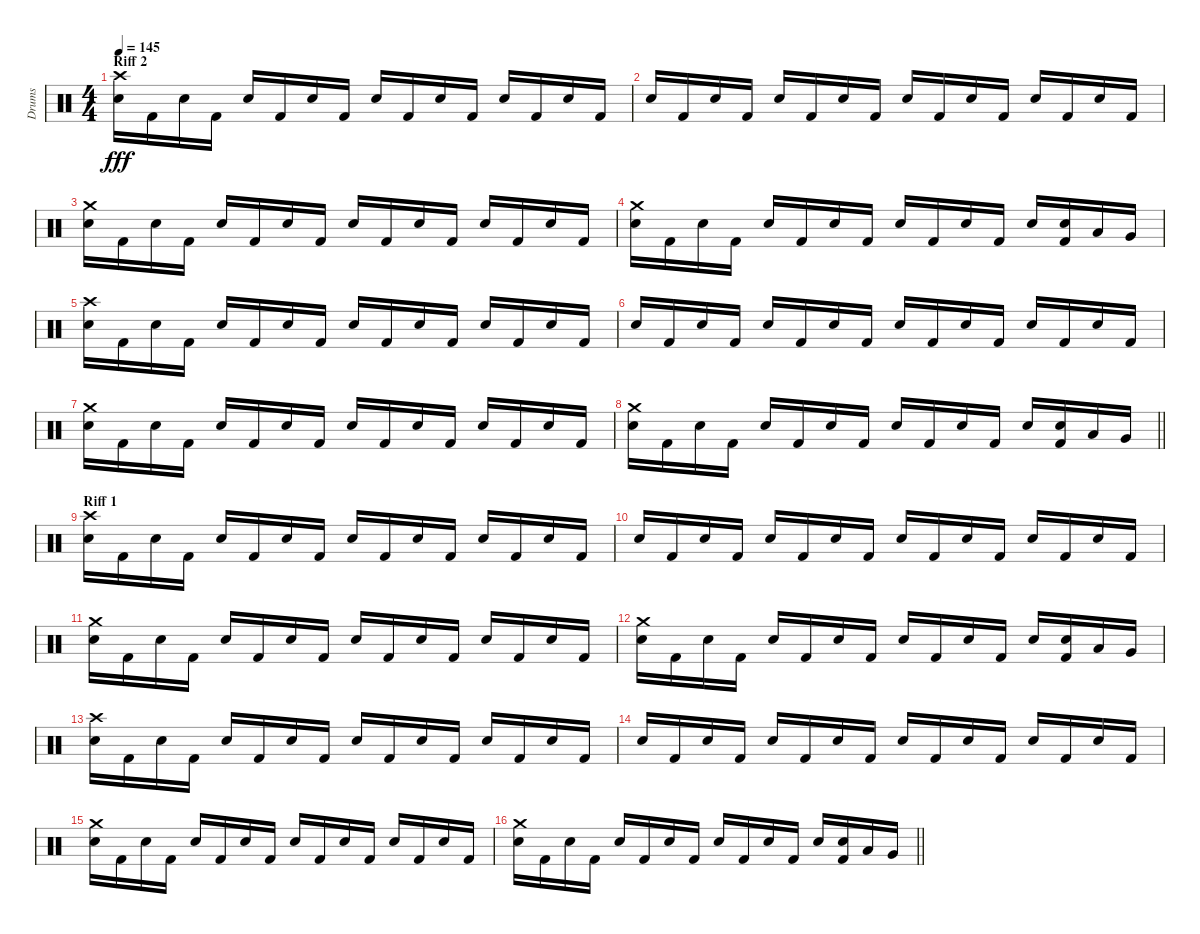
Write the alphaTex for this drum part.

\track ("Drums" "Drums") {instrument percussion}
\staff {score}
\articulation defaults
\ts (4 4)
\section ("" "Riff 2")
\tempo 145
\clef neutral
\ks c
("Crash high (hit)" "Snare (hit) 2").16{dy fff} "Kick (hit) 2".16 "Snare (hit) 2".16 "Kick (hit) 2".16 "Snare (hit) 2".16 "Kick (hit) 2".16 "Snare (hit) 2".16 "Kick (hit) 2".16 "Snare (hit) 2".16 "Kick (hit) 2".16 "Snare (hit) 2".16 "Kick (hit) 2".16 "Snare (hit) 2".16 "Kick (hit) 2".16 "Snare (hit) 2".16 "Kick (hit) 2".16 |
"Snare (hit) 2".16 "Kick (hit) 2".16 "Snare (hit) 2".16 "Kick (hit) 2".16 "Snare (hit) 2".16 "Kick (hit) 2".16 "Snare (hit) 2".16 "Kick (hit) 2".16 "Snare (hit) 2".16 "Kick (hit) 2".16 "Snare (hit) 2".16 "Kick (hit) 2".16 "Snare (hit) 2".16 "Kick (hit) 2".16 "Snare (hit) 2".16 "Kick (hit) 2".16 |
("Crash medium (hit)" "Snare (hit) 2").16 "Kick (hit) 2".16 "Snare (hit) 2".16 "Kick (hit) 2".16 "Snare (hit) 2".16 "Kick (hit) 2".16 "Snare (hit) 2".16 "Kick (hit) 2".16 "Snare (hit) 2".16 "Kick (hit) 2".16 "Snare (hit) 2".16 "Kick (hit) 2".16 "Snare (hit) 2".16 "Kick (hit) 2".16 "Snare (hit) 2".16 "Kick (hit) 2".16 |
("Crash medium (hit)" "Snare (hit) 2").16 "Kick (hit) 2".16 "Snare (hit) 2".16 "Kick (hit) 2".16 "Snare (hit) 2".16 "Kick (hit) 2".16 "Snare (hit) 2".16 "Kick (hit) 2".16 "Snare (hit) 2".16 "Kick (hit) 2".16 "Snare (hit) 2".16 "Kick (hit) 2".16 "Snare (hit) 2".16 ("Kick (hit) 2" "Snare (hit) 2").16 "Low Tom (hit)".16 "Very Low Tom (hit)".16 |
("Crash high (hit)" "Snare (hit) 2").16 "Kick (hit) 2".16 "Snare (hit) 2".16 "Kick (hit) 2".16 "Snare (hit) 2".16 "Kick (hit) 2".16 "Snare (hit) 2".16 "Kick (hit) 2".16 "Snare (hit) 2".16 "Kick (hit) 2".16 "Snare (hit) 2".16 "Kick (hit) 2".16 "Snare (hit) 2".16 "Kick (hit) 2".16 "Snare (hit) 2".16 "Kick (hit) 2".16 |
"Snare (hit) 2".16 "Kick (hit) 2".16 "Snare (hit) 2".16 "Kick (hit) 2".16 "Snare (hit) 2".16 "Kick (hit) 2".16 "Snare (hit) 2".16 "Kick (hit) 2".16 "Snare (hit) 2".16 "Kick (hit) 2".16 "Snare (hit) 2".16 "Kick (hit) 2".16 "Snare (hit) 2".16 "Kick (hit) 2".16 "Snare (hit) 2".16 "Kick (hit) 2".16 |
("Crash medium (hit)" "Snare (hit) 2").16 "Kick (hit) 2".16 "Snare (hit) 2".16 "Kick (hit) 2".16 "Snare (hit) 2".16 "Kick (hit) 2".16 "Snare (hit) 2".16 "Kick (hit) 2".16 "Snare (hit) 2".16 "Kick (hit) 2".16 "Snare (hit) 2".16 "Kick (hit) 2".16 "Snare (hit) 2".16 "Kick (hit) 2".16 "Snare (hit) 2".16 "Kick (hit) 2".16 |
\barLineRight lightlight
("Crash medium (hit)" "Snare (hit) 2").16 "Kick (hit) 2".16 "Snare (hit) 2".16 "Kick (hit) 2".16 "Snare (hit) 2".16 "Kick (hit) 2".16 "Snare (hit) 2".16 "Kick (hit) 2".16 "Snare (hit) 2".16 "Kick (hit) 2".16 "Snare (hit) 2".16 "Kick (hit) 2".16 "Snare (hit) 2".16 ("Kick (hit) 2" "Snare (hit) 2").16 "Low Tom (hit)".16 "Very Low Tom (hit)".16 |
\section ("" "Riff 1")
("Crash high (hit)" "Snare (hit) 2").16 "Kick (hit) 2".16 "Snare (hit) 2".16 "Kick (hit) 2".16 "Snare (hit) 2".16 "Kick (hit) 2".16 "Snare (hit) 2".16 "Kick (hit) 2".16 "Snare (hit) 2".16 "Kick (hit) 2".16 "Snare (hit) 2".16 "Kick (hit) 2".16 "Snare (hit) 2".16 "Kick (hit) 2".16 "Snare (hit) 2".16 "Kick (hit) 2".16 |
"Snare (hit) 2".16 "Kick (hit) 2".16 "Snare (hit) 2".16 "Kick (hit) 2".16 "Snare (hit) 2".16 "Kick (hit) 2".16 "Snare (hit) 2".16 "Kick (hit) 2".16 "Snare (hit) 2".16 "Kick (hit) 2".16 "Snare (hit) 2".16 "Kick (hit) 2".16 "Snare (hit) 2".16 "Kick (hit) 2".16 "Snare (hit) 2".16 "Kick (hit) 2".16 |
("Crash medium (hit)" "Snare (hit) 2").16 "Kick (hit) 2".16 "Snare (hit) 2".16 "Kick (hit) 2".16 "Snare (hit) 2".16 "Kick (hit) 2".16 "Snare (hit) 2".16 "Kick (hit) 2".16 "Snare (hit) 2".16 "Kick (hit) 2".16 "Snare (hit) 2".16 "Kick (hit) 2".16 "Snare (hit) 2".16 "Kick (hit) 2".16 "Snare (hit) 2".16 "Kick (hit) 2".16 |
("Crash medium (hit)" "Snare (hit) 2").16 "Kick (hit) 2".16 "Snare (hit) 2".16 "Kick (hit) 2".16 "Snare (hit) 2".16 "Kick (hit) 2".16 "Snare (hit) 2".16 "Kick (hit) 2".16 "Snare (hit) 2".16 "Kick (hit) 2".16 "Snare (hit) 2".16 "Kick (hit) 2".16 "Snare (hit) 2".16 ("Kick (hit) 2" "Snare (hit) 2").16 "Low Tom (hit)".16 "Very Low Tom (hit)".16 |
("Crash high (hit)" "Snare (hit) 2").16 "Kick (hit) 2".16 "Snare (hit) 2".16 "Kick (hit) 2".16 "Snare (hit) 2".16 "Kick (hit) 2".16 "Snare (hit) 2".16 "Kick (hit) 2".16 "Snare (hit) 2".16 "Kick (hit) 2".16 "Snare (hit) 2".16 "Kick (hit) 2".16 "Snare (hit) 2".16 "Kick (hit) 2".16 "Snare (hit) 2".16 "Kick (hit) 2".16 |
"Snare (hit) 2".16 "Kick (hit) 2".16 "Snare (hit) 2".16 "Kick (hit) 2".16 "Snare (hit) 2".16 "Kick (hit) 2".16 "Snare (hit) 2".16 "Kick (hit) 2".16 "Snare (hit) 2".16 "Kick (hit) 2".16 "Snare (hit) 2".16 "Kick (hit) 2".16 "Snare (hit) 2".16 "Kick (hit) 2".16 "Snare (hit) 2".16 "Kick (hit) 2".16 |
("Crash medium (hit)" "Snare (hit) 2").16 "Kick (hit) 2".16 "Snare (hit) 2".16 "Kick (hit) 2".16 "Snare (hit) 2".16 "Kick (hit) 2".16 "Snare (hit) 2".16 "Kick (hit) 2".16 "Snare (hit) 2".16 "Kick (hit) 2".16 "Snare (hit) 2".16 "Kick (hit) 2".16 "Snare (hit) 2".16 "Kick (hit) 2".16 "Snare (hit) 2".16 "Kick (hit) 2".16 |
\barLineRight lightlight
("Crash medium (hit)" "Snare (hit) 2").16 "Kick (hit) 2".16 "Snare (hit) 2".16 "Kick (hit) 2".16 "Snare (hit) 2".16 "Kick (hit) 2".16 "Snare (hit) 2".16 "Kick (hit) 2".16 "Snare (hit) 2".16 "Kick (hit) 2".16 "Snare (hit) 2".16 "Kick (hit) 2".16 "Snare (hit) 2".16 ("Kick (hit) 2" "Snare (hit) 2").16 "Low Tom (hit)".16 "Very Low Tom (hit)".16
